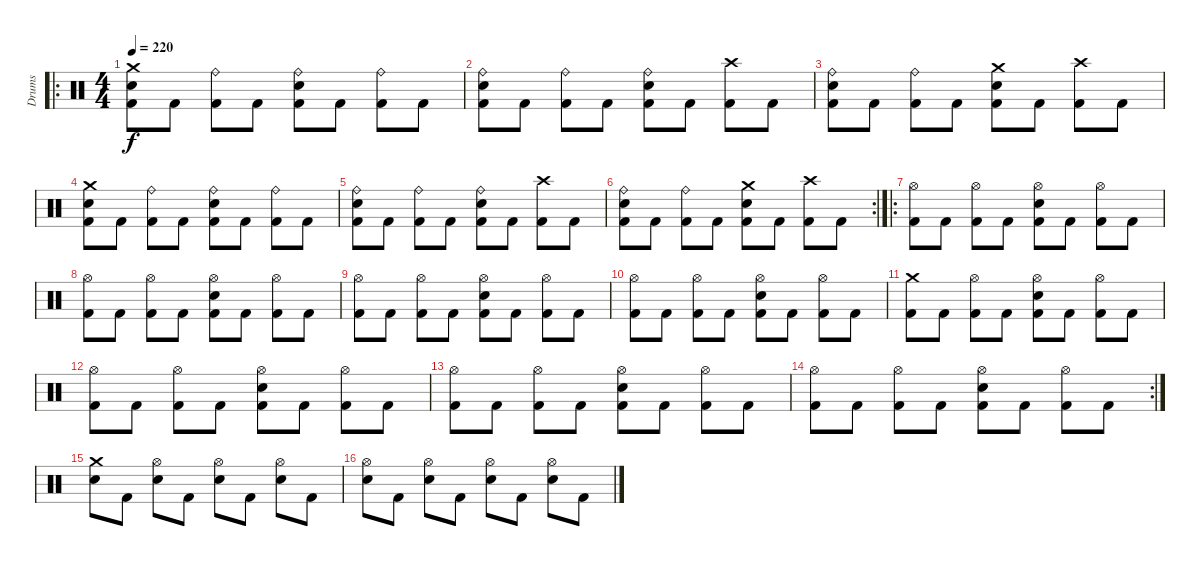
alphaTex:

\track ("Drums" "Drums") {instrument percussion}
\staff {score}
\articulation defaults
\ro
\ts (4 4)
\tempo 220
\clef neutral
\ks c
("Kick (hit) 2" "Electric Snare (hit)" "Crash medium (hit)").8{dy f} "Kick (hit) 2".8 ("Kick (hit) 2" "Ride (bell)").8 "Kick (hit) 2".8 ("Kick (hit) 2" "Electric Snare (hit)" "Ride (bell)").8 "Kick (hit) 2".8 ("Kick (hit) 2" "Ride (bell)").8 "Kick (hit) 2".8 |
("Kick (hit) 2" "Electric Snare (hit)" "Ride (bell)").8 "Kick (hit) 2".8 ("Kick (hit) 2" "Ride (bell)").8 "Kick (hit) 2".8 ("Kick (hit) 2" "Electric Snare (hit)" "Ride (bell)").8 "Kick (hit) 2".8 ("Kick (hit) 2" "Crash high (hit)").8 "Kick (hit) 2".8 |
("Kick (hit) 2" "Electric Snare (hit)" "Ride (bell)").8 "Kick (hit) 2".8 ("Kick (hit) 2" "Ride (bell)").8 "Kick (hit) 2".8 ("Kick (hit) 2" "Electric Snare (hit)" "Crash medium (hit)").8 "Kick (hit) 2".8 ("Kick (hit) 2" "Crash high (hit)").8 "Kick (hit) 2".8 |
("Kick (hit) 2" "Electric Snare (hit)" "Crash medium (hit)").8 "Kick (hit) 2".8 ("Kick (hit) 2" "Ride (bell)").8 "Kick (hit) 2".8 ("Kick (hit) 2" "Electric Snare (hit)" "Ride (bell)").8 "Kick (hit) 2".8 ("Kick (hit) 2" "Ride (bell)").8 "Kick (hit) 2".8 |
("Kick (hit) 2" "Electric Snare (hit)" "Ride (bell)").8 "Kick (hit) 2".8 ("Kick (hit) 2" "Ride (bell)").8 "Kick (hit) 2".8 ("Kick (hit) 2" "Electric Snare (hit)" "Ride (bell)").8 "Kick (hit) 2".8 ("Kick (hit) 2" "Crash high (hit)").8 "Kick (hit) 2".8 |
\rc 2
("Kick (hit) 2" "Electric Snare (hit)" "Ride (bell)").8 "Kick (hit) 2".8 ("Kick (hit) 2" "Ride (bell)").8 "Kick (hit) 2".8 ("Kick (hit) 2" "Electric Snare (hit)" "Crash medium (hit)").8 "Kick (hit) 2".8 ("Kick (hit) 2" "Crash high (hit)").8 "Kick (hit) 2".8 |
\ro
("Kick (hit) 2" "Hi-Hat (open)").8 "Kick (hit) 2".8 ("Kick (hit) 2" "Hi-Hat (open)").8 "Kick (hit) 2".8 ("Kick (hit) 2" "Electric Snare (hit)" "Hi-Hat (open)").8 "Kick (hit) 2".8 ("Kick (hit) 2" "Hi-Hat (open)").8 "Kick (hit) 2".8 |
("Kick (hit) 2" "Hi-Hat (open)").8 "Kick (hit) 2".8 ("Kick (hit) 2" "Hi-Hat (open)").8 "Kick (hit) 2".8 ("Kick (hit) 2" "Electric Snare (hit)" "Hi-Hat (open)").8 "Kick (hit) 2".8 ("Kick (hit) 2" "Hi-Hat (open)").8 "Kick (hit) 2".8 |
("Kick (hit) 2" "Hi-Hat (open)").8 "Kick (hit) 2".8 ("Kick (hit) 2" "Hi-Hat (open)").8 "Kick (hit) 2".8 ("Kick (hit) 2" "Electric Snare (hit)" "Hi-Hat (open)").8 "Kick (hit) 2".8 ("Kick (hit) 2" "Hi-Hat (open)").8 "Kick (hit) 2".8 |
("Kick (hit) 2" "Hi-Hat (open)").8 "Kick (hit) 2".8 ("Kick (hit) 2" "Hi-Hat (open)").8 "Kick (hit) 2".8 ("Kick (hit) 2" "Electric Snare (hit)" "Hi-Hat (open)").8 "Kick (hit) 2".8 ("Kick (hit) 2" "Hi-Hat (open)").8 "Kick (hit) 2".8 |
("Kick (hit) 2" "Crash medium (hit)").8 "Kick (hit) 2".8 ("Kick (hit) 2" "Hi-Hat (open)").8 "Kick (hit) 2".8 ("Kick (hit) 2" "Electric Snare (hit)" "Hi-Hat (open)").8 "Kick (hit) 2".8 ("Kick (hit) 2" "Hi-Hat (open)").8 "Kick (hit) 2".8 |
("Kick (hit) 2" "Hi-Hat (open)").8 "Kick (hit) 2".8 ("Kick (hit) 2" "Hi-Hat (open)").8 "Kick (hit) 2".8 ("Kick (hit) 2" "Electric Snare (hit)" "Hi-Hat (open)").8 "Kick (hit) 2".8 ("Kick (hit) 2" "Hi-Hat (open)").8 "Kick (hit) 2".8 |
("Kick (hit) 2" "Hi-Hat (open)").8 "Kick (hit) 2".8 ("Kick (hit) 2" "Hi-Hat (open)").8 "Kick (hit) 2".8 ("Kick (hit) 2" "Electric Snare (hit)" "Hi-Hat (open)").8 "Kick (hit) 2".8 ("Kick (hit) 2" "Hi-Hat (open)").8 "Kick (hit) 2".8 |
\rc 2
("Kick (hit) 2" "Hi-Hat (open)").8 "Kick (hit) 2".8 ("Kick (hit) 2" "Hi-Hat (open)").8 "Kick (hit) 2".8 ("Kick (hit) 2" "Electric Snare (hit)" "Hi-Hat (open)").8 "Kick (hit) 2".8 ("Kick (hit) 2" "Hi-Hat (open)").8 "Kick (hit) 2".8 |
("Electric Snare (hit)" "Crash medium (hit)").8 "Kick (hit) 2".8 ("Electric Snare (hit)" "Hi-Hat (open)").8 "Kick (hit) 2".8 ("Electric Snare (hit)" "Hi-Hat (open)").8 "Kick (hit) 2".8 ("Electric Snare (hit)" "Hi-Hat (open)").8 "Kick (hit) 2".8 |
("Electric Snare (hit)" "Hi-Hat (open)").8 "Kick (hit) 2".8 ("Electric Snare (hit)" "Hi-Hat (open)").8 "Kick (hit) 2".8 ("Electric Snare (hit)" "Hi-Hat (open)").8 "Kick (hit) 2".8 ("Electric Snare (hit)" "Hi-Hat (open)").8 "Kick (hit) 2".8
